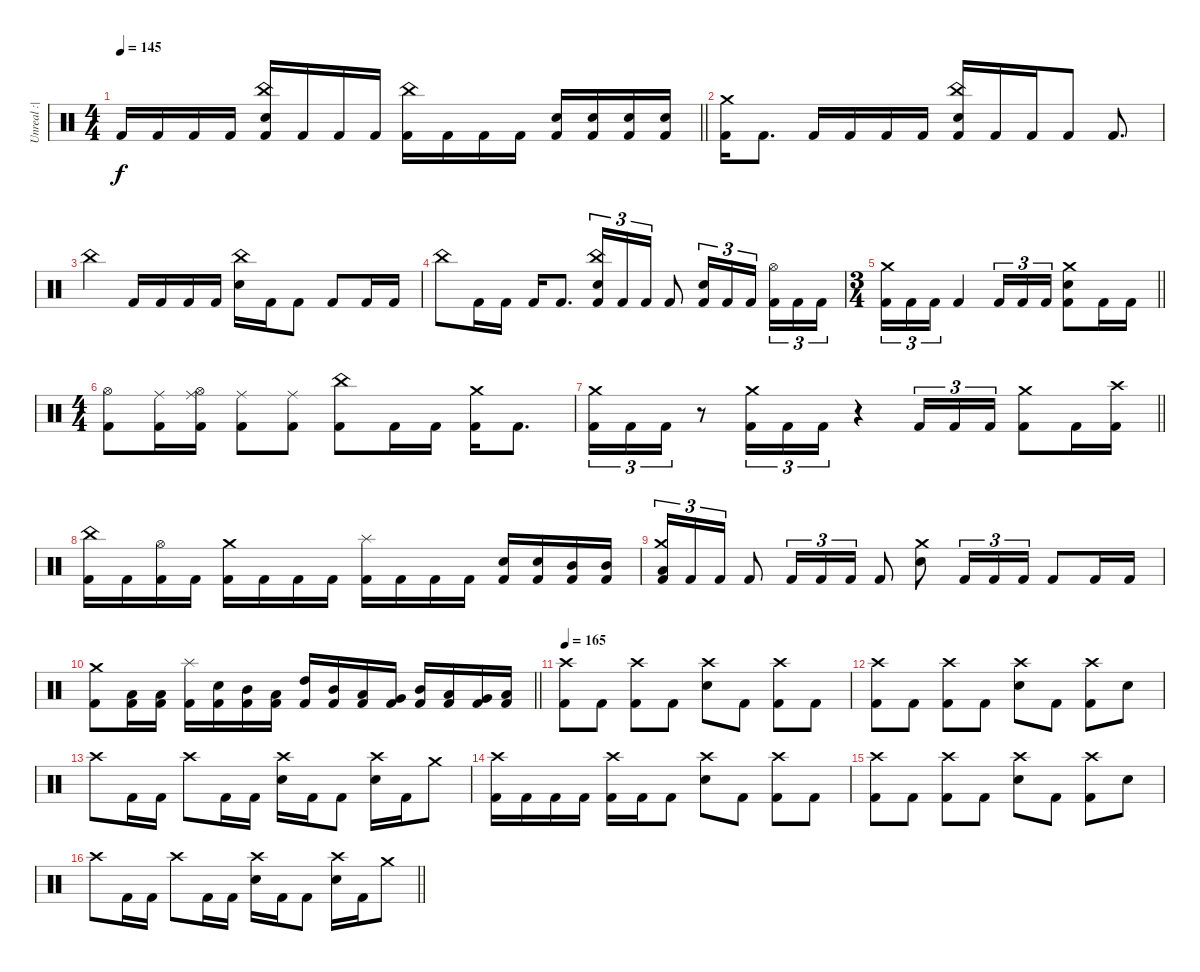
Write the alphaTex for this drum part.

\track ("Unreal :|" "Unreal :|") {instrument percussion}
\staff {score}
\articulation defaults
\ts (4 4)
\tempo 145
\clef neutral
\barLineRight lightlight
\ks c "Kick (hit) 2".16{dy f} "Kick (hit) 2".16 "Kick (hit) 2".16 "Kick (hit) 2".16
("China (hit)" "Electric Snare (hit)" "Kick (hit) 2").16 "Kick (hit) 2".16 "Kick (hit) 2".16 "Kick (hit) 2".16 ("China (hit)" "Kick (hit) 2").16 "Kick (hit) 2".16 "Kick (hit) 2".16 "Kick (hit) 2".16 ("Electric Snare (hit)" "Kick (hit) 2").16 ("Electric Snare (hit)" "Kick (hit) 2").16 ("Electric Snare (hit)" "Kick (hit) 2").16 ("Electric Snare (hit)" "Kick (hit) 2").16 |
\section ("" "")
("Crash medium (hit)" "Kick (hit) 2").16 "Kick (hit) 2".8{d} "Kick (hit) 2".16 "Kick (hit) 2".16 "Kick (hit) 2".16 "Kick (hit) 2".16 ("China (hit)" "Electric Snare (hit)" "Kick (hit) 2").16 "Kick (hit) 2".16 "Kick (hit) 2".16 "Kick (hit) 2".8 "Kick (hit) 2".8{d} |
"China (hit)".4 "Kick (hit) 2".16 "Kick (hit) 2".16 "Kick (hit) 2".16 "Kick (hit) 2".16 ("China (hit)" "Electric Snare (hit)").16 "Kick (hit) 2".16 "Kick (hit) 2".8 "Kick (hit) 2".8 "Kick (hit) 2".16 "Kick (hit) 2".16 |
"China (hit)".8 "Kick (hit) 2".16 "Kick (hit) 2".16 "Kick (hit) 2".16 "Kick (hit) 2".8{d} ("China (hit)" "Electric Snare (hit)" "Kick (hit) 2").16{tu (3 2)} "Kick (hit) 2".16{tu (3 2)} "Kick (hit) 2".16{tu (3 2)} "Kick (hit) 2".8 ("Electric Snare (hit)" "Kick (hit) 2").16{tu (3 2)} "Kick (hit) 2".16{tu (3 2)} "Kick (hit) 2".16{tu (3 2) beam splitsecondary} ("Hi-Hat (open)" "Kick (hit) 2").16{tu (3 2)} "Kick (hit) 2".16{tu (3 2)} "Kick (hit) 2".16{tu (3 2)} |
\ts (3 4)
\barLineRight lightlight
("Crash medium (hit)" "Kick (hit) 2").16{tu (3 2)} "Kick (hit) 2".16{tu (3 2)} "Kick (hit) 2".16{tu (3 2)} "Kick (hit) 2".4 "Kick (hit) 2".16{tu (3 2)} "Kick (hit) 2".16{tu (3 2)} "Kick (hit) 2".16{tu (3 2)} ("Crash medium (hit)" "Electric Snare (hit)" "Kick (hit) 2").8 "Kick (hit) 2".16 "Kick (hit) 2".16 |
\ts (4 4)
\section ("" "")
("Hi-Hat (open)" "Kick (hit) 2").8 ("Ride (middle)" "Kick (hit) 2").16 ("Ride (middle)" "Hi-Hat (open)" "Kick (hit) 2").16 ("Ride (middle)" "Kick (hit) 2").8 ("Ride (middle)" "Kick (hit) 2").8 ("China (hit)" "Kick (hit) 2").8 "Kick (hit) 2".16 "Kick (hit) 2".16 ("Crash medium (hit)" "Kick (hit) 2").16 "Kick (hit) 2".8{d} |
\barLineRight lightlight
("Crash medium (hit)" "Kick (hit) 2").16{tu (3 2)} "Kick (hit) 2".16{tu (3 2)} "Kick (hit) 2".16{tu (3 2)} r.8 ("Crash medium (hit)" "Kick (hit) 2").16{tu (3 2)} "Kick (hit) 2".16{tu (3 2)} "Kick (hit) 2".16{tu (3 2)} r.4 "Kick (hit) 2".16{tu (3 2)} "Kick (hit) 2".16{tu (3 2)} "Kick (hit) 2".16{tu (3 2)} ("Crash medium (hit)" "Kick (hit) 2").8 "Kick (hit) 2".16 ("Crash high (hit)" "Kick (hit) 2").16 |
("China (hit)" "Kick (hit) 2").16 "Kick (hit) 2".16 ("Hi-Hat (open)" "Kick (hit) 2").16 "Kick (hit) 2".16 ("Crash medium (hit)" "Kick (hit) 2").16 "Kick (hit) 2".16 "Kick (hit) 2".16 "Kick (hit) 2".16 ("Splash (hit)" "Kick (hit) 2").16 "Kick (hit) 2".16 "Kick (hit) 2".16 "Kick (hit) 2".16 ("Electric Snare (hit)" "Kick (hit) 2").16 ("Electric Snare (hit)" "Kick (hit) 2").16 ("Mid Tom (hit)" "Kick (hit) 2").16 ("Mid Tom (hit)" "Kick (hit) 2").16 |
("Crash medium (hit)" "Low Floor Tom (hit)" "Kick (hit) 2").16{tu (3 2)} "Kick (hit) 2".16{tu (3 2)} "Kick (hit) 2".16{tu (3 2)} "Kick (hit) 2".8 "Kick (hit) 2".16{tu (3 2)} "Kick (hit) 2".16{tu (3 2)} "Kick (hit) 2".16{tu (3 2)} "Kick (hit) 2".8 ("Crash medium (hit)" "Electric Snare (hit)").8 "Kick (hit) 2".16{tu (3 2)} "Kick (hit) 2".16{tu (3 2)} "Kick (hit) 2".16{tu (3 2)} "Kick (hit) 2".8 "Kick (hit) 2".16 "Kick (hit) 2".16 |
\barLineRight lightlight
("Crash medium (hit)" "Kick (hit) 2").8 ("Low Tom (hit)" "Kick (hit) 2").16 ("Low Tom (hit)" "Kick (hit) 2").16 ("Splash (hit)" "Kick (hit) 2").16 ("Electric Snare (hit)" "Kick (hit) 2").16 ("Mid Tom (hit)" "Kick (hit) 2").16 ("Low Tom (hit)" "Kick (hit) 2").16 ("High Tom (hit)" "Kick (hit) 2").16 ("Mid Tom (hit)" "Kick (hit) 2").16 ("Low Tom (hit)" "Kick (hit) 2").16 ("Very Low Tom (hit)" "Kick (hit) 2").16 ("Mid Tom (hit)" "Kick (hit) 2").16 ("Low Tom (hit)" "Kick (hit) 2").16 ("Very Low Tom (hit)" "Kick (hit) 2").16 ("Low Floor Tom (hit)" "Kick (hit) 2").16 |
\section ("" "")
\tempo 165
("Crash high (hit)" "Kick (hit) 2").8 "Kick (hit) 2".8 ("Crash high (hit)" "Kick (hit) 2").8 "Kick (hit) 2".8 ("Crash high (hit)" "Electric Snare (hit)").8 "Kick (hit) 2".8 ("Crash high (hit)" "Kick (hit) 2").8 "Kick (hit) 2".8 |
("Crash high (hit)" "Kick (hit) 2").8 "Kick (hit) 2".8 ("Crash high (hit)" "Kick (hit) 2").8 "Kick (hit) 2".8 ("Crash high (hit)" "Electric Snare (hit)").8 "Kick (hit) 2".8 ("Crash high (hit)" "Kick (hit) 2").8 "Electric Snare (hit)".8 |
"Crash high (hit)".8 "Kick (hit) 2".16 "Kick (hit) 2".16 "Crash high (hit)".8 "Kick (hit) 2".16 "Kick (hit) 2".16 ("Crash high (hit)" "Electric Snare (hit)").16 "Kick (hit) 2".16 "Kick (hit) 2".8 ("Crash high (hit)" "Electric Snare (hit)").16 "Kick (hit) 2".16 "Crash medium (hit)".8 |
("Crash high (hit)" "Kick (hit) 2").16 "Kick (hit) 2".16 "Kick (hit) 2".16 "Kick (hit) 2".16 ("Crash high (hit)" "Kick (hit) 2").16 "Kick (hit) 2".16 "Kick (hit) 2".8 ("Crash high (hit)" "Electric Snare (hit)").8 "Kick (hit) 2".8 ("Crash high (hit)" "Kick (hit) 2").8 "Kick (hit) 2".8 |
("Crash high (hit)" "Kick (hit) 2").8 "Kick (hit) 2".8 ("Crash high (hit)" "Kick (hit) 2").8 "Kick (hit) 2".8 ("Crash high (hit)" "Electric Snare (hit)").8 "Kick (hit) 2".8 ("Crash high (hit)" "Kick (hit) 2").8 "Electric Snare (hit)".8 |
\barLineRight lightlight "Crash high (hit)".8 "Kick (hit) 2".16 "Kick (hit) 2".16 "Crash high (hit)".8 "Kick (hit) 2".16 "Kick (hit) 2".16
("Crash high (hit)" "Electric Snare (hit)").16 "Kick (hit) 2".16 "Kick (hit) 2".8 ("Crash high (hit)" "Electric Snare (hit)").16 "Kick (hit) 2".16 "Crash medium (hit)".8
